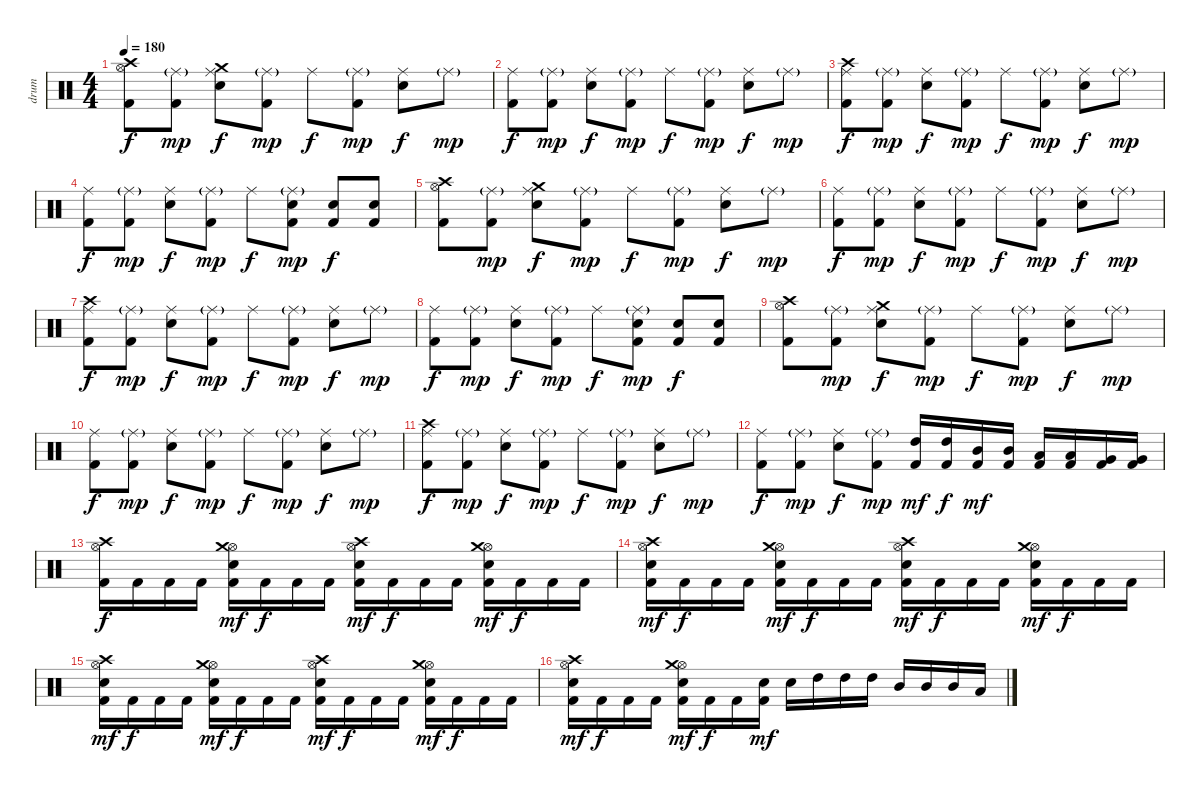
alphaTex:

\track ("drum" "drum") {instrument percussion}
\staff {score}
\articulation defaults
\ts (4 4)
\tempo 180
\clef neutral
\ks c
("Crash high (hit)" "Hi-Hat (open)" "Kick (hit) 2").8{dy f} ("Ride (middle)"{g} "Kick (hit) 2").8{dy mp} ("Crash medium (hit)" "Ride (middle)" "Electric Snare (hit)").8{dy f} ("Ride (middle)"{g} "Kick (hit) 2").8{dy mp} "Ride (middle)".8{dy f} ("Ride (middle)"{g} "Kick (hit) 2").8{dy mp} ("Ride (middle)" "Electric Snare (hit)").8{dy f} "Ride (middle)"{g}.8{dy mp} |
("Ride (middle)" "Kick (hit) 2").8{dy f} ("Ride (middle)"{g} "Kick (hit) 2").8{dy mp} ("Ride (middle)" "Electric Snare (hit)").8{dy f} ("Ride (middle)"{g} "Kick (hit) 2").8{dy mp} "Ride (middle)".8{dy f} ("Ride (middle)"{g} "Kick (hit) 2").8{dy mp} ("Ride (middle)" "Electric Snare (hit)").8{dy f} "Ride (middle)"{g}.8{dy mp} |
("Crash high (hit)" "Ride (middle)" "Kick (hit) 2").8{dy f} ("Ride (middle)"{g} "Kick (hit) 2").8{dy mp} ("Ride (middle)" "Electric Snare (hit)").8{dy f} ("Ride (middle)"{g} "Kick (hit) 2").8{dy mp} "Ride (middle)".8{dy f} ("Ride (middle)"{g} "Kick (hit) 2").8{dy mp} ("Ride (middle)" "Electric Snare (hit)").8{dy f} "Ride (middle)"{g}.8{dy mp} |
("Ride (middle)" "Kick (hit) 2").8{dy f} ("Ride (middle)"{g} "Kick (hit) 2").8{dy mp} ("Ride (middle)" "Electric Snare (hit)").8{dy f} ("Ride (middle)"{g} "Kick (hit) 2").8{dy mp} "Ride (middle)".8{dy f} ("Ride (middle)"{g} "Electric Snare (hit)" "Kick (hit) 2").8{dy mp} ("Electric Snare (hit)" "Kick (hit) 2").8{dy f} ("Electric Snare (hit)" "Kick (hit) 2").8 |
("Crash high (hit)" "Hi-Hat (open)" "Kick (hit) 2").8 ("Ride (middle)"{g} "Kick (hit) 2").8{dy mp} ("Crash medium (hit)" "Ride (middle)" "Electric Snare (hit)").8{dy f} ("Ride (middle)"{g} "Kick (hit) 2").8{dy mp} "Ride (middle)".8{dy f} ("Ride (middle)"{g} "Kick (hit) 2").8{dy mp} ("Ride (middle)" "Electric Snare (hit)").8{dy f} "Ride (middle)"{g}.8{dy mp} |
("Ride (middle)" "Kick (hit) 2").8{dy f} ("Ride (middle)"{g} "Kick (hit) 2").8{dy mp} ("Ride (middle)" "Electric Snare (hit)").8{dy f} ("Ride (middle)"{g} "Kick (hit) 2").8{dy mp} "Ride (middle)".8{dy f} ("Ride (middle)"{g} "Kick (hit) 2").8{dy mp} ("Ride (middle)" "Electric Snare (hit)").8{dy f} "Ride (middle)"{g}.8{dy mp} |
("Crash high (hit)" "Ride (middle)" "Kick (hit) 2").8{dy f} ("Ride (middle)"{g} "Kick (hit) 2").8{dy mp} ("Ride (middle)" "Electric Snare (hit)").8{dy f} ("Ride (middle)"{g} "Kick (hit) 2").8{dy mp} "Ride (middle)".8{dy f} ("Ride (middle)"{g} "Kick (hit) 2").8{dy mp} ("Ride (middle)" "Electric Snare (hit)").8{dy f} "Ride (middle)"{g}.8{dy mp} |
("Ride (middle)" "Kick (hit) 2").8{dy f} ("Ride (middle)"{g} "Kick (hit) 2").8{dy mp} ("Ride (middle)" "Electric Snare (hit)").8{dy f} ("Ride (middle)"{g} "Kick (hit) 2").8{dy mp} "Ride (middle)".8{dy f} ("Ride (middle)"{g} "Electric Snare (hit)" "Kick (hit) 2").8{dy mp} ("Electric Snare (hit)" "Kick (hit) 2").8{dy f} ("Electric Snare (hit)" "Kick (hit) 2").8 |
("Crash high (hit)" "Hi-Hat (open)" "Kick (hit) 2").8 ("Ride (middle)"{g} "Kick (hit) 2").8{dy mp} ("Crash medium (hit)" "Ride (middle)" "Electric Snare (hit)").8{dy f} ("Ride (middle)"{g} "Kick (hit) 2").8{dy mp} "Ride (middle)".8{dy f} ("Ride (middle)"{g} "Kick (hit) 2").8{dy mp} ("Ride (middle)" "Electric Snare (hit)").8{dy f} "Ride (middle)"{g}.8{dy mp} |
("Ride (middle)" "Kick (hit) 2").8{dy f} ("Ride (middle)"{g} "Kick (hit) 2").8{dy mp} ("Ride (middle)" "Electric Snare (hit)").8{dy f} ("Ride (middle)"{g} "Kick (hit) 2").8{dy mp} "Ride (middle)".8{dy f} ("Ride (middle)"{g} "Kick (hit) 2").8{dy mp} ("Ride (middle)" "Electric Snare (hit)").8{dy f} "Ride (middle)"{g}.8{dy mp} |
("Crash high (hit)" "Ride (middle)" "Kick (hit) 2").8{dy f} ("Ride (middle)"{g} "Kick (hit) 2").8{dy mp} ("Ride (middle)" "Electric Snare (hit)").8{dy f} ("Ride (middle)"{g} "Kick (hit) 2").8{dy mp} "Ride (middle)".8{dy f} ("Ride (middle)"{g} "Kick (hit) 2").8{dy mp} ("Ride (middle)" "Electric Snare (hit)").8{dy f} "Ride (middle)"{g}.8{dy mp} |
("Ride (middle)" "Kick (hit) 2").8{dy f} ("Ride (middle)"{g} "Kick (hit) 2").8{dy mp} ("Ride (middle)" "Electric Snare (hit)").8{dy f} ("Ride (middle)"{g} "Kick (hit) 2").8{dy mp} ("High Tom (hit)" "Kick (hit) 2").16{dy mf} ("High Tom (hit)" "Kick (hit) 2").16{dy f} ("Mid Tom (hit)" "Kick (hit) 2").16{dy mf} ("Mid Tom (hit)" "Kick (hit) 2").16 ("Low Tom (hit)" "Kick (hit) 2").16 ("Low Tom (hit)" "Kick (hit) 2").16 ("Very Low Tom (hit)" "Kick (hit) 2").16 ("Very Low Tom (hit)" "Kick (hit) 2").16 |
("Hi-Hat (open)" "Crash high (hit)" "Kick (hit) 2").16{dy f} "Kick (hit) 2".16 "Kick (hit) 2".16 "Kick (hit) 2".16 ("Hi-Hat (open)" "Crash medium (hit)" "Electric Snare (hit)" "Kick (hit) 2").16{dy mf} "Kick (hit) 2".16{dy f} "Kick (hit) 2".16 "Kick (hit) 2".16 ("Hi-Hat (open)" "Crash high (hit)" "Electric Snare (hit)" "Kick (hit) 2").16{dy mf} "Kick (hit) 2".16{dy f} "Kick (hit) 2".16 "Kick (hit) 2".16 ("Hi-Hat (open)" "Crash medium (hit)" "Electric Snare (hit)" "Kick (hit) 2").16{dy mf} "Kick (hit) 2".16{dy f} "Kick (hit) 2".16 "Kick (hit) 2".16 |
("Hi-Hat (open)" "Crash high (hit)" "Electric Snare (hit)" "Kick (hit) 2").16{dy mf} "Kick (hit) 2".16{dy f} "Kick (hit) 2".16 "Kick (hit) 2".16 ("Hi-Hat (open)" "Crash medium (hit)" "Electric Snare (hit)" "Kick (hit) 2").16{dy mf} "Kick (hit) 2".16{dy f} "Kick (hit) 2".16 "Kick (hit) 2".16 ("Hi-Hat (open)" "Crash high (hit)" "Electric Snare (hit)" "Kick (hit) 2").16{dy mf} "Kick (hit) 2".16{dy f} "Kick (hit) 2".16 "Kick (hit) 2".16 ("Hi-Hat (open)" "Crash medium (hit)" "Electric Snare (hit)" "Kick (hit) 2").16{dy mf} "Kick (hit) 2".16{dy f} "Kick (hit) 2".16 "Kick (hit) 2".16 |
("Hi-Hat (open)" "Crash high (hit)" "Electric Snare (hit)" "Kick (hit) 2").16{dy mf} "Kick (hit) 2".16{dy f} "Kick (hit) 2".16 "Kick (hit) 2".16 ("Hi-Hat (open)" "Crash medium (hit)" "Electric Snare (hit)" "Kick (hit) 2").16{dy mf} "Kick (hit) 2".16{dy f} "Kick (hit) 2".16 "Kick (hit) 2".16 ("Hi-Hat (open)" "Crash high (hit)" "Electric Snare (hit)" "Kick (hit) 2").16{dy mf} "Kick (hit) 2".16{dy f} "Kick (hit) 2".16 "Kick (hit) 2".16 ("Hi-Hat (open)" "Crash medium (hit)" "Electric Snare (hit)" "Kick (hit) 2").16{dy mf} "Kick (hit) 2".16{dy f} "Kick (hit) 2".16 "Kick (hit) 2".16 |
("Hi-Hat (open)" "Crash high (hit)" "Electric Snare (hit)" "Kick (hit) 2").16{dy mf} "Kick (hit) 2".16{dy f} "Kick (hit) 2".16 "Kick (hit) 2".16 ("Hi-Hat (open)" "Crash medium (hit)" "Electric Snare (hit)" "Kick (hit) 2").16{dy mf} "Kick (hit) 2".16{dy f} "Kick (hit) 2".16 ("Electric Snare (hit)" "Kick (hit) 2").16{dy mf} "Electric Snare (hit)".16 "High Tom (hit)".16 "High Tom (hit)".16 "High Tom (hit)".16 "Mid Tom (hit)".16 "Mid Tom (hit)".16 "Mid Tom (hit)".16 "Low Tom (hit)".16
